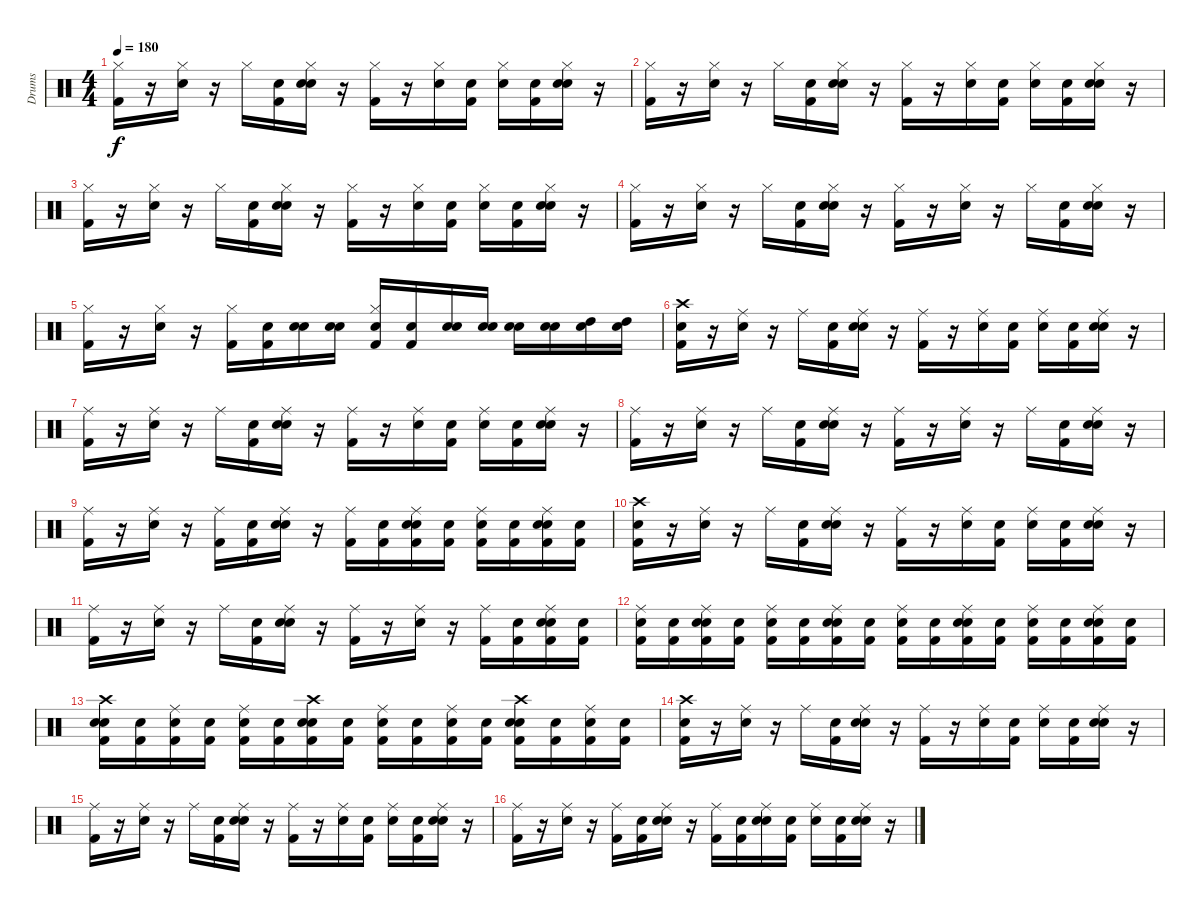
\track ("Drums" "Drums") {instrument percussion}
\staff {score}
\articulation defaults
\ts (4 4)
\tempo 180
\clef neutral
\ks c
("Kick (hit) 2" "Hi-Hat (closed)").16{dy f} r.16 ("Snare (hit) 2" "Hi-Hat (closed)").16 r.16 "Hi-Hat (closed)".16 ("Snare (hit)" "Kick (hit) 2").16 ("Snare (hit)" "Snare (hit) 2" "Hi-Hat (closed)").16 r.16 ("Kick (hit) 2" "Hi-Hat (closed)").16 r.16 ("Snare (hit) 2" "Hi-Hat (closed)").16 ("Snare (hit)" "Kick (hit) 2").16 ("Snare (hit)" "Hi-Hat (closed)").16 ("Snare (hit)" "Kick (hit) 2").16 ("Snare (hit)" "Snare (hit) 2" "Hi-Hat (closed)").16 r.16 |
("Kick (hit) 2" "Hi-Hat (closed)").16 r.16 ("Snare (hit) 2" "Hi-Hat (closed)").16 r.16 "Hi-Hat (closed)".16 ("Snare (hit)" "Kick (hit) 2").16 ("Snare (hit)" "Snare (hit) 2" "Hi-Hat (closed)").16 r.16 ("Kick (hit) 2" "Hi-Hat (closed)").16 r.16 ("Snare (hit) 2" "Hi-Hat (closed)").16 ("Snare (hit)" "Kick (hit) 2").16 ("Snare (hit)" "Hi-Hat (closed)").16 ("Snare (hit)" "Kick (hit) 2").16 ("Snare (hit)" "Snare (hit) 2" "Hi-Hat (closed)").16 r.16 |
("Kick (hit) 2" "Hi-Hat (closed)").16 r.16 ("Snare (hit) 2" "Hi-Hat (closed)").16 r.16 "Hi-Hat (closed)".16 ("Snare (hit)" "Kick (hit) 2").16 ("Snare (hit)" "Snare (hit) 2" "Hi-Hat (closed)").16 r.16 ("Kick (hit) 2" "Hi-Hat (closed)").16 r.16 ("Snare (hit) 2" "Hi-Hat (closed)").16 ("Snare (hit)" "Kick (hit) 2").16 ("Snare (hit)" "Hi-Hat (closed)").16 ("Snare (hit)" "Kick (hit) 2").16 ("Snare (hit)" "Snare (hit) 2" "Hi-Hat (closed)").16 r.16 |
("Kick (hit) 2" "Hi-Hat (closed)").16 r.16 ("Snare (hit) 2" "Hi-Hat (closed)").16 r.16 "Hi-Hat (closed)".16 ("Snare (hit)" "Kick (hit) 2").16 ("Snare (hit)" "Snare (hit) 2" "Hi-Hat (closed)").16 r.16 ("Kick (hit) 2" "Hi-Hat (closed)").16 r.16 ("Snare (hit) 2" "Hi-Hat (closed)").16 r.16 "Hi-Hat (closed)".16 ("Snare (hit)" "Kick (hit) 2").16 ("Snare (hit)" "Snare (hit) 2" "Hi-Hat (closed)").16 r.16 |
("Kick (hit) 2" "Hi-Hat (closed)").16 r.16 ("Snare (hit) 2" "Hi-Hat (closed)").16 r.16 ("Kick (hit) 2" "Hi-Hat (closed)").16 ("Snare (hit)" "Kick (hit) 2").16 ("Snare (hit)" "Snare (hit) 2").16 ("Snare (hit)" "Snare (hit) 2").16 ("Snare (hit)" "Kick (hit) 2" "Hi-Hat (closed)").16 ("Snare (hit)" "Kick (hit) 2").16 ("Snare (hit)" "Snare (hit) 2").16 ("Snare (hit)" "Snare (hit) 2").16 ("Snare (hit)" "Snare (hit) 2").16 ("Snare (hit)" "Snare (hit) 2").16 ("Snare (hit)" "High Tom (hit)").16 ("Snare (hit)" "High Tom (hit)").16 |
("Snare (hit)" "Kick (hit) 2" "Crash high (hit)").16 r.16 ("Snare (hit) 2" "Ride (middle)").16 r.16 "Ride (middle)".16 ("Snare (hit)" "Kick (hit) 2").16 ("Snare (hit)" "Snare (hit) 2" "Ride (middle)").16 r.16 ("Kick (hit) 2" "Ride (middle)").16 r.16 ("Snare (hit) 2" "Ride (middle)").16 ("Snare (hit)" "Kick (hit) 2").16 ("Snare (hit)" "Ride (middle)").16 ("Snare (hit)" "Kick (hit) 2").16 ("Snare (hit)" "Snare (hit) 2" "Ride (middle)").16 r.16 |
("Kick (hit) 2" "Ride (middle)").16 r.16 ("Snare (hit) 2" "Ride (middle)").16 r.16 "Ride (middle)".16 ("Snare (hit)" "Kick (hit) 2").16 ("Snare (hit)" "Snare (hit) 2" "Ride (middle)").16 r.16 ("Kick (hit) 2" "Ride (middle)").16 r.16 ("Snare (hit) 2" "Ride (middle)").16 ("Snare (hit)" "Kick (hit) 2").16 ("Snare (hit)" "Ride (middle)").16 ("Snare (hit)" "Kick (hit) 2").16 ("Snare (hit)" "Snare (hit) 2" "Ride (middle)").16 r.16 |
("Kick (hit) 2" "Ride (middle)").16 r.16 ("Snare (hit) 2" "Ride (middle)").16 r.16 "Ride (middle)".16 ("Snare (hit)" "Kick (hit) 2").16 ("Snare (hit)" "Snare (hit) 2" "Ride (middle)").16 r.16 ("Kick (hit) 2" "Ride (middle)").16 r.16 ("Snare (hit) 2" "Ride (middle)").16 r.16 "Ride (middle)".16 ("Snare (hit)" "Kick (hit) 2").16 ("Snare (hit)" "Snare (hit) 2" "Ride (middle)").16 r.16 |
("Kick (hit) 2" "Ride (middle)").16 r.16 ("Snare (hit) 2" "Ride (middle)").16 r.16 ("Kick (hit) 2" "Ride (middle)").16 ("Snare (hit)" "Kick (hit) 2").16 ("Snare (hit)" "Snare (hit) 2" "Ride (middle)").16 r.16 ("Kick (hit) 2" "Ride (middle)").16 ("Snare (hit)" "Kick (hit) 2").16 ("Snare (hit)" "Kick (hit) 2" "Snare (hit) 2" "Ride (middle)").16 ("Snare (hit)" "Kick (hit) 2").16 ("Snare (hit)" "Kick (hit) 2" "Ride (middle)").16 ("Snare (hit)" "Kick (hit) 2").16 ("Snare (hit)" "Kick (hit) 2" "Snare (hit) 2" "Ride (middle)").16 ("Snare (hit)" "Kick (hit) 2").16 |
("Snare (hit)" "Kick (hit) 2" "Crash high (hit)").16 r.16 ("Snare (hit) 2" "Ride (middle)").16 r.16 "Ride (middle)".16 ("Snare (hit)" "Kick (hit) 2").16 ("Snare (hit)" "Snare (hit) 2" "Ride (middle)").16 r.16 ("Kick (hit) 2" "Ride (middle)").16 r.16 ("Snare (hit) 2" "Ride (middle)").16 ("Snare (hit)" "Kick (hit) 2").16 ("Snare (hit)" "Ride (middle)").16 ("Snare (hit)" "Kick (hit) 2").16 ("Snare (hit)" "Snare (hit) 2" "Ride (middle)").16 r.16 |
("Kick (hit) 2" "Ride (middle)").16 r.16 ("Snare (hit) 2" "Ride (middle)").16 r.16 "Ride (middle)".16 ("Snare (hit)" "Kick (hit) 2").16 ("Snare (hit)" "Snare (hit) 2" "Ride (middle)").16 r.16 ("Kick (hit) 2" "Ride (middle)").16 r.16 ("Snare (hit) 2" "Ride (middle)").16 r.16 ("Kick (hit) 2" "Ride (middle)").16 ("Snare (hit)" "Kick (hit) 2").16 ("Snare (hit)" "Kick (hit) 2" "Snare (hit) 2" "Ride (middle)").16 ("Snare (hit)" "Kick (hit) 2").16 |
("Snare (hit)" "Kick (hit) 2" "Ride (middle)").16 ("Snare (hit)" "Kick (hit) 2").16 ("Snare (hit)" "Snare (hit) 2" "Kick (hit) 2" "Ride (middle)").16 ("Snare (hit)" "Kick (hit) 2").16 ("Snare (hit)" "Kick (hit) 2" "Ride (middle)").16 ("Snare (hit)" "Kick (hit) 2").16 ("Snare (hit)" "Snare (hit) 2" "Kick (hit) 2" "Ride (middle)").16 ("Snare (hit)" "Kick (hit) 2").16 ("Snare (hit)" "Kick (hit) 2" "Ride (middle)").16 ("Snare (hit)" "Kick (hit) 2").16 ("Snare (hit)" "Snare (hit) 2" "Kick (hit) 2" "Ride (middle)").16 ("Snare (hit)" "Kick (hit) 2").16 ("Snare (hit)" "Kick (hit) 2" "Ride (middle)").16 ("Snare (hit)" "Kick (hit) 2").16 ("Snare (hit)" "Snare (hit) 2" "Ride (middle)" "Kick (hit) 2").16 ("Snare (hit)" "Kick (hit) 2").16 |
("Snare (hit)" "Snare (hit) 2" "Crash high (hit)" "Kick (hit) 2").16 ("Snare (hit)" "Kick (hit) 2").16 ("Snare (hit)" "Ride (middle)" "Kick (hit) 2").16 ("Snare (hit)" "Kick (hit) 2").16 ("Snare (hit)" "Ride (middle)" "Kick (hit) 2").16 ("Snare (hit)" "Kick (hit) 2").16 ("Snare (hit)" "Snare (hit) 2" "Crash high (hit)" "Kick (hit) 2").16 ("Snare (hit)" "Kick (hit) 2").16 ("Snare (hit)" "Ride (middle)" "Kick (hit) 2").16 ("Snare (hit)" "Kick (hit) 2").16 ("Snare (hit)" "Ride (middle)" "Kick (hit) 2").16 ("Snare (hit)" "Kick (hit) 2").16 ("Snare (hit)" "Snare (hit) 2" "Crash high (hit)" "Kick (hit) 2").16 ("Snare (hit)" "Kick (hit) 2").16 ("Snare (hit)" "Ride (middle)" "Kick (hit) 2").16 ("Snare (hit)" "Kick (hit) 2").16 |
("Snare (hit)" "Kick (hit) 2" "Crash high (hit)").16 r.16 ("Snare (hit) 2" "Ride (middle)").16 r.16 "Ride (middle)".16 ("Snare (hit)" "Kick (hit) 2").16 ("Snare (hit)" "Snare (hit) 2" "Ride (middle)").16 r.16 ("Kick (hit) 2" "Ride (middle)").16 r.16 ("Snare (hit) 2" "Ride (middle)").16 ("Snare (hit)" "Kick (hit) 2").16 ("Snare (hit)" "Ride (middle)").16 ("Snare (hit)" "Kick (hit) 2").16 ("Snare (hit)" "Snare (hit) 2" "Ride (middle)").16 r.16 |
("Kick (hit) 2" "Ride (middle)").16 r.16 ("Snare (hit) 2" "Ride (middle)").16 r.16 "Ride (middle)".16 ("Snare (hit)" "Kick (hit) 2").16 ("Snare (hit)" "Snare (hit) 2" "Ride (middle)").16 r.16 ("Kick (hit) 2" "Ride (middle)").16 r.16 ("Ride (middle)" "Snare (hit) 2").16 ("Snare (hit)" "Kick (hit) 2").16 ("Snare (hit)" "Ride (middle)").16 ("Snare (hit)" "Kick (hit) 2").16 ("Snare (hit)" "Snare (hit) 2" "Ride (middle)").16 r.16 |
("Kick (hit) 2" "Ride (middle)").16 r.16 ("Snare (hit) 2" "Ride (middle)").16 r.16 ("Kick (hit) 2" "Ride (middle)").16 ("Snare (hit)" "Kick (hit) 2").16 ("Snare (hit)" "Snare (hit) 2" "Ride (middle)").16 r.16 ("Kick (hit) 2" "Ride (middle)").16 ("Snare (hit)" "Kick (hit) 2").16 ("Snare (hit)" "Snare (hit) 2" "Ride (middle)").16 ("Snare (hit)" "Kick (hit) 2").16 ("Snare (hit)" "Ride (middle)").16 ("Snare (hit)" "Kick (hit) 2").16 ("Snare (hit)" "Snare (hit) 2" "Ride (middle)").16 r.16
